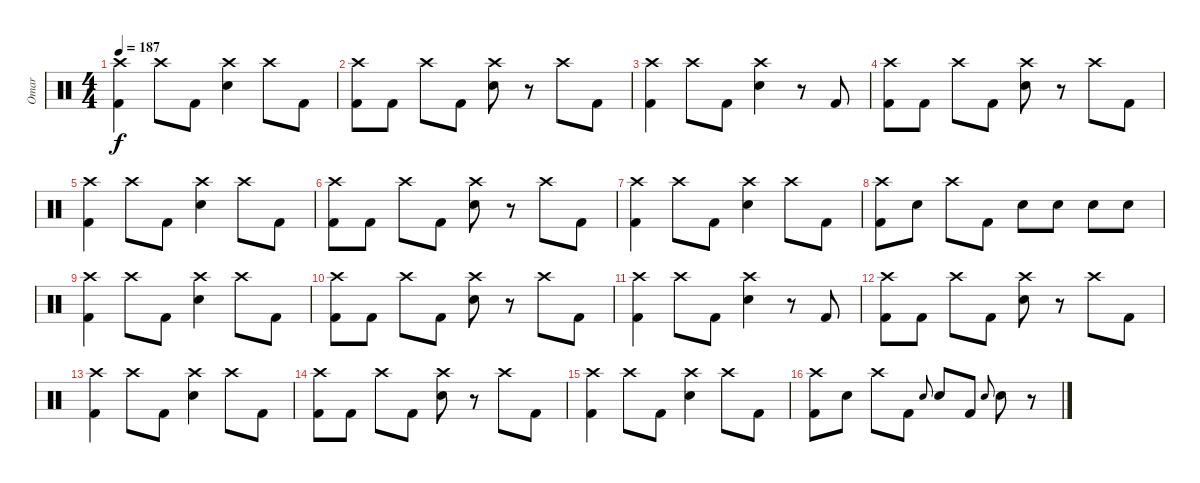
\track ("Omar" "Omar") {instrument percussion}
\staff {score}
\articulation defaults
\ts (4 4)
\tempo 187
\clef neutral
\ks c
("Crash high (hit)" "Kick (hit) 2").4{dy f} "Crash high (hit)".8 "Kick (hit) 2".8 ("Crash high (hit)" "Snare (hit) 2").4 "Crash high (hit)".8 "Kick (hit) 2".8 |
("Crash high (hit)" "Kick (hit) 2").8 "Kick (hit) 2".8 "Crash high (hit)".8 "Kick (hit) 2".8 ("Crash high (hit)" "Snare (hit) 2").8 r.8 "Crash high (hit)".8 "Kick (hit) 2".8 |
("Crash high (hit)" "Kick (hit) 2").4 "Crash high (hit)".8 "Kick (hit) 2".8 ("Crash high (hit)" "Snare (hit) 2").4 r.8 "Kick (hit) 2".8 |
("Crash high (hit)" "Kick (hit) 2").8 "Kick (hit) 2".8 "Crash high (hit)".8 "Kick (hit) 2".8 ("Crash high (hit)" "Snare (hit) 2").8 r.8 "Crash high (hit)".8 "Kick (hit) 2".8 |
("Crash high (hit)" "Kick (hit) 2").4 "Crash high (hit)".8 "Kick (hit) 2".8 ("Crash high (hit)" "Snare (hit) 2").4 "Crash high (hit)".8 "Kick (hit) 2".8 |
("Crash high (hit)" "Kick (hit) 2").8 "Kick (hit) 2".8 "Crash high (hit)".8 "Kick (hit) 2".8 ("Crash high (hit)" "Snare (hit) 2").8 r.8 "Crash high (hit)".8 "Kick (hit) 2".8 |
("Crash high (hit)" "Kick (hit) 2").4 "Crash high (hit)".8 "Kick (hit) 2".8 ("Crash high (hit)" "Snare (hit) 2").4 "Crash high (hit)".8 "Kick (hit) 2".8 |
("Crash high (hit)" "Kick (hit) 2").8 "Snare (hit) 2".8 "Crash high (hit)".8 "Kick (hit) 2".8 "Snare (hit) 2".8 "Snare (hit) 2".8 "Snare (hit) 2".8 "Snare (hit) 2".8 |
("Crash high (hit)" "Kick (hit) 2").4 "Crash high (hit)".8 "Kick (hit) 2".8 ("Crash high (hit)" "Snare (hit) 2").4 "Crash high (hit)".8 "Kick (hit) 2".8 |
("Crash high (hit)" "Kick (hit) 2").8 "Kick (hit) 2".8 "Crash high (hit)".8 "Kick (hit) 2".8 ("Crash high (hit)" "Snare (hit) 2").8 r.8 "Crash high (hit)".8 "Kick (hit) 2".8 |
("Crash high (hit)" "Kick (hit) 2").4 "Crash high (hit)".8 "Kick (hit) 2".8 ("Crash high (hit)" "Snare (hit) 2").4 r.8 "Kick (hit) 2".8 |
("Crash high (hit)" "Kick (hit) 2").8 "Kick (hit) 2".8 "Crash high (hit)".8 "Kick (hit) 2".8 ("Crash high (hit)" "Snare (hit) 2").8 r.8 "Crash high (hit)".8 "Kick (hit) 2".8 |
("Crash high (hit)" "Kick (hit) 2").4 "Crash high (hit)".8 "Kick (hit) 2".8 ("Crash high (hit)" "Snare (hit) 2").4 "Crash high (hit)".8 "Kick (hit) 2".8 |
("Crash high (hit)" "Kick (hit) 2").8 "Kick (hit) 2".8 "Crash high (hit)".8 "Kick (hit) 2".8 ("Crash high (hit)" "Snare (hit) 2").8 r.8 "Crash high (hit)".8 "Kick (hit) 2".8 |
("Crash high (hit)" "Kick (hit) 2").4 "Crash high (hit)".8 "Kick (hit) 2".8 ("Crash high (hit)" "Snare (hit) 2").4 "Crash high (hit)".8 "Kick (hit) 2".8 |
("Crash high (hit)" "Kick (hit) 2").8 "Snare (hit) 2".8 "Crash high (hit)".8 "Kick (hit) 2".8 "Snare (hit) 2".8{gr onbeat} "Snare (hit) 2".8 "Kick (hit) 2".8 "Snare (hit) 2".8{gr onbeat} "Snare (hit) 2".8 r.8
